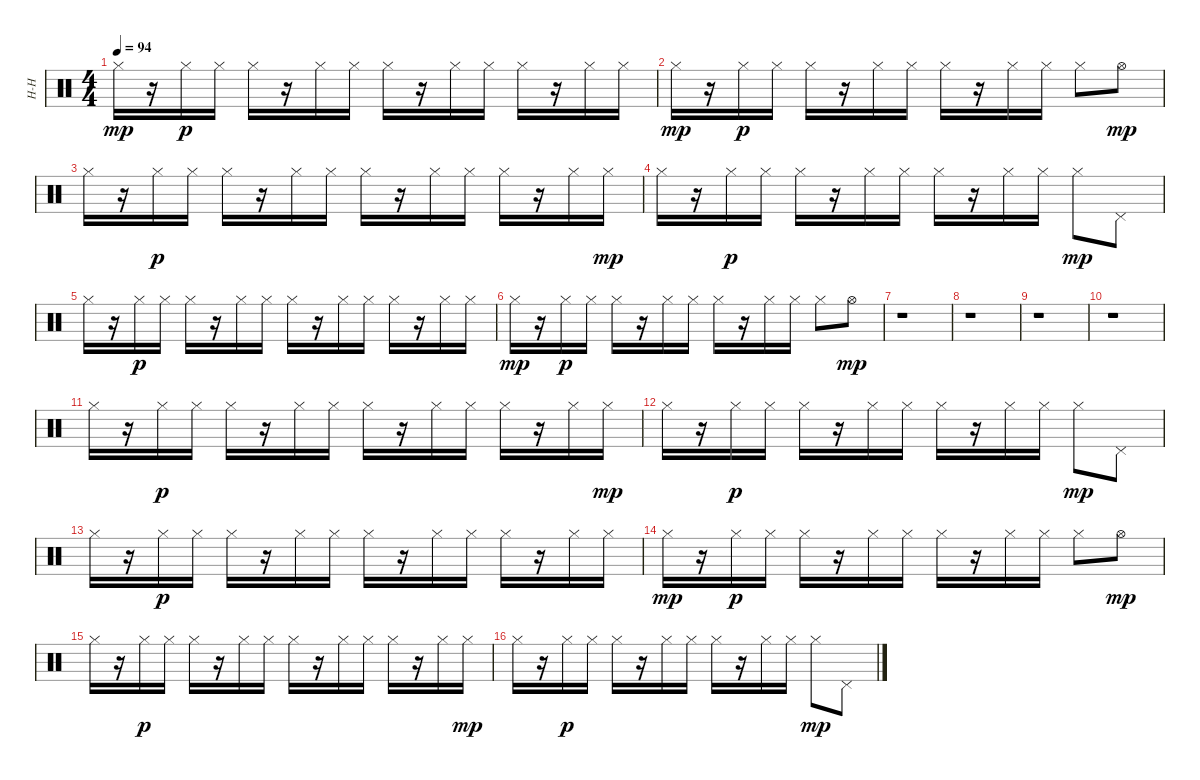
\track ("H-H" "H-H") {instrument percussion}
\staff {score}
\articulation defaults
\ts (4 4)
\tempo 94
\clef neutral
\ks c "Hi-Hat (closed)".16{dy mp}
r.16 "Hi-Hat (closed)".16{dy p} "Hi-Hat (closed)".16 "Hi-Hat (closed)".16 r.16 "Hi-Hat (closed)".16 "Hi-Hat (closed)".16 "Hi-Hat (closed)".16 r.16 "Hi-Hat (closed)".16 "Hi-Hat (closed)".16 "Hi-Hat (closed)".16 r.16 "Hi-Hat (closed)".16 "Hi-Hat (closed)".16 |
"Hi-Hat (closed)".16{dy mp} r.16 "Hi-Hat (closed)".16{dy p} "Hi-Hat (closed)".16 "Hi-Hat (closed)".16 r.16 "Hi-Hat (closed)".16 "Hi-Hat (closed)".16 "Hi-Hat (closed)".16 r.16 "Hi-Hat (closed)".16 "Hi-Hat (closed)".16 "Hi-Hat (closed)".8 "Hi-Hat (open)".8{dy mp} |
"Hi-Hat (closed)".16 r.16 "Hi-Hat (closed)".16{dy p} "Hi-Hat (closed)".16 "Hi-Hat (closed)".16 r.16 "Hi-Hat (closed)".16 "Hi-Hat (closed)".16 "Hi-Hat (closed)".16 r.16 "Hi-Hat (closed)".16 "Hi-Hat (closed)".16 "Hi-Hat (closed)".16 r.16 "Hi-Hat (closed)".16 "Hi-Hat (closed)".16{dy mp} |
"Hi-Hat (closed)".16 r.16 "Hi-Hat (closed)".16{dy p} "Hi-Hat (closed)".16 "Hi-Hat (closed)".16 r.16 "Hi-Hat (closed)".16 "Hi-Hat (closed)".16 "Hi-Hat (closed)".16 r.16 "Hi-Hat (closed)".16 "Hi-Hat (closed)".16 "Hi-Hat (closed)".8{dy mp} "Pedal Hi-Hat (hit)".8 |
"Hi-Hat (closed)".16 r.16 "Hi-Hat (closed)".16{dy p} "Hi-Hat (closed)".16 "Hi-Hat (closed)".16 r.16 "Hi-Hat (closed)".16 "Hi-Hat (closed)".16 "Hi-Hat (closed)".16 r.16 "Hi-Hat (closed)".16 "Hi-Hat (closed)".16 "Hi-Hat (closed)".16 r.16 "Hi-Hat (closed)".16 "Hi-Hat (closed)".16 |
"Hi-Hat (closed)".16{dy mp} r.16 "Hi-Hat (closed)".16{dy p} "Hi-Hat (closed)".16 "Hi-Hat (closed)".16 r.16 "Hi-Hat (closed)".16 "Hi-Hat (closed)".16 "Hi-Hat (closed)".16 r.16 "Hi-Hat (closed)".16 "Hi-Hat (closed)".16 "Hi-Hat (closed)".8 "Hi-Hat (open)".8{dy mp} |
r.1 |
r.1 |
r.1 |
r.1 |
"Hi-Hat (closed)".16 r.16 "Hi-Hat (closed)".16{dy p} "Hi-Hat (closed)".16 "Hi-Hat (closed)".16 r.16 "Hi-Hat (closed)".16 "Hi-Hat (closed)".16 "Hi-Hat (closed)".16 r.16 "Hi-Hat (closed)".16 "Hi-Hat (closed)".16 "Hi-Hat (closed)".16 r.16 "Hi-Hat (closed)".16 "Hi-Hat (closed)".16{dy mp} |
"Hi-Hat (closed)".16 r.16 "Hi-Hat (closed)".16{dy p} "Hi-Hat (closed)".16 "Hi-Hat (closed)".16 r.16 "Hi-Hat (closed)".16 "Hi-Hat (closed)".16 "Hi-Hat (closed)".16 r.16 "Hi-Hat (closed)".16 "Hi-Hat (closed)".16 "Hi-Hat (closed)".8{dy mp} "Pedal Hi-Hat (hit)".8 |
"Hi-Hat (closed)".16 r.16 "Hi-Hat (closed)".16{dy p} "Hi-Hat (closed)".16 "Hi-Hat (closed)".16 r.16 "Hi-Hat (closed)".16 "Hi-Hat (closed)".16 "Hi-Hat (closed)".16 r.16 "Hi-Hat (closed)".16 "Hi-Hat (closed)".16 "Hi-Hat (closed)".16 r.16 "Hi-Hat (closed)".16 "Hi-Hat (closed)".16 |
"Hi-Hat (closed)".16{dy mp} r.16 "Hi-Hat (closed)".16{dy p} "Hi-Hat (closed)".16 "Hi-Hat (closed)".16 r.16 "Hi-Hat (closed)".16 "Hi-Hat (closed)".16 "Hi-Hat (closed)".16 r.16 "Hi-Hat (closed)".16 "Hi-Hat (closed)".16 "Hi-Hat (closed)".8 "Hi-Hat (open)".8{dy mp} |
"Hi-Hat (closed)".16 r.16 "Hi-Hat (closed)".16{dy p} "Hi-Hat (closed)".16 "Hi-Hat (closed)".16 r.16 "Hi-Hat (closed)".16 "Hi-Hat (closed)".16 "Hi-Hat (closed)".16 r.16 "Hi-Hat (closed)".16 "Hi-Hat (closed)".16 "Hi-Hat (closed)".16 r.16 "Hi-Hat (closed)".16 "Hi-Hat (closed)".16{dy mp} |
"Hi-Hat (closed)".16 r.16 "Hi-Hat (closed)".16{dy p} "Hi-Hat (closed)".16 "Hi-Hat (closed)".16 r.16 "Hi-Hat (closed)".16 "Hi-Hat (closed)".16 "Hi-Hat (closed)".16 r.16 "Hi-Hat (closed)".16 "Hi-Hat (closed)".16 "Hi-Hat (closed)".8{dy mp} "Pedal Hi-Hat (hit)".8
